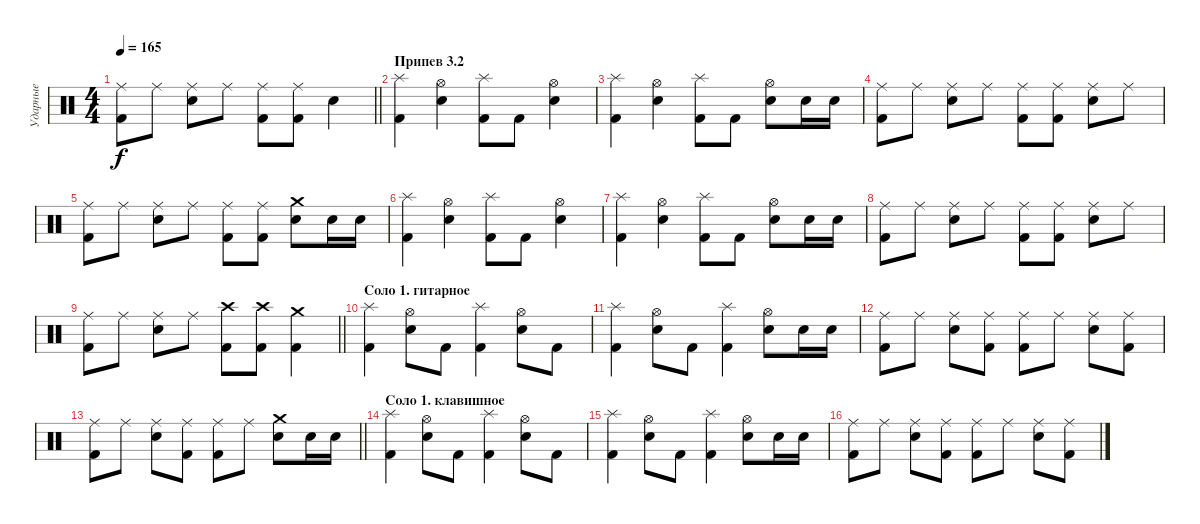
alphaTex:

\track ("Ударные" "Ударные") {instrument percussion}
\staff {score}
\articulation defaults
\ts (4 4)
\tempo 165
\clef neutral
\barLineRight lightlight
\ks c
("Ride (middle)" "Kick (hit) 2").8{dy f} "Ride (middle)".8 ("Ride (middle)" "Electric Snare (hit)").8 "Ride (middle)".8 ("Ride (middle)" "Kick (hit) 2").8 ("Ride (middle)" "Kick (hit) 2").8 "Electric Snare (hit)".4 |
\section ("" "Припев 3.2")
("Splash (hit)" "Kick (hit) 2").4 ("Hi-Hat (open)" "Electric Snare (hit)").4 ("Splash (hit)" "Kick (hit) 2").8 "Kick (hit) 2".8 ("Hi-Hat (open)" "Electric Snare (hit)").4 |
("Splash (hit)" "Kick (hit) 2").4 ("Hi-Hat (open)" "Electric Snare (hit)").4 ("Splash (hit)" "Kick (hit) 2").8 "Kick (hit) 2".8 ("Hi-Hat (open)" "Electric Snare (hit)").8 "Electric Snare (hit)".16 "Electric Snare (hit)".16 |
("Ride (middle)" "Kick (hit) 2").8 "Ride (middle)".8 ("Ride (middle)" "Electric Snare (hit)").8 "Ride (middle)".8 ("Ride (middle)" "Kick (hit) 2").8 ("Ride (middle)" "Kick (hit) 2").8 ("Ride (middle)" "Electric Snare (hit)").8 "Ride (middle)".8 |
("Ride (middle)" "Kick (hit) 2").8 "Ride (middle)".8 ("Ride (middle)" "Electric Snare (hit)").8 "Ride (middle)".8 ("Ride (middle)" "Kick (hit) 2").8 ("Ride (middle)" "Kick (hit) 2").8 ("Crash medium (hit)" "Electric Snare (hit)").8 "Electric Snare (hit)".16 "Electric Snare (hit)".16 |
("Splash (hit)" "Kick (hit) 2").4 ("Hi-Hat (open)" "Electric Snare (hit)").4 ("Splash (hit)" "Kick (hit) 2").8 "Kick (hit) 2".8 ("Hi-Hat (open)" "Electric Snare (hit)").4 |
("Splash (hit)" "Kick (hit) 2").4 ("Hi-Hat (open)" "Electric Snare (hit)").4 ("Splash (hit)" "Kick (hit) 2").8 "Kick (hit) 2".8 ("Hi-Hat (open)" "Electric Snare (hit)").8 "Electric Snare (hit)".16 "Electric Snare (hit)".16 |
("Ride (middle)" "Kick (hit) 2").8 "Ride (middle)".8 ("Ride (middle)" "Electric Snare (hit)").8 "Ride (middle)".8 ("Ride (middle)" "Kick (hit) 2").8 ("Ride (middle)" "Kick (hit) 2").8 ("Ride (middle)" "Electric Snare (hit)").8 "Ride (middle)".8 |
\barLineRight lightlight
("Ride (middle)" "Kick (hit) 2").8 "Ride (middle)".8 ("Ride (middle)" "Electric Snare (hit)").8 "Ride (middle)".8 ("Crash high (hit)" "Kick (hit) 2").8 ("Crash high (hit)" "Kick (hit) 2").8 ("Crash medium (hit)" "Kick (hit) 2").4 |
\section ("" "Соло 1. гитарное")
("Splash (hit)" "Kick (hit) 2").4 ("Hi-Hat (open)" "Electric Snare (hit)").8 "Kick (hit) 2".8 ("Splash (hit)" "Kick (hit) 2").4 ("Hi-Hat (open)" "Electric Snare (hit)").8 "Kick (hit) 2".8 |
("Splash (hit)" "Kick (hit) 2").4 ("Hi-Hat (open)" "Electric Snare (hit)").8 "Kick (hit) 2".8 ("Splash (hit)" "Kick (hit) 2").4 ("Hi-Hat (open)" "Electric Snare (hit)").8 "Electric Snare (hit)".16 "Electric Snare (hit)".16 |
("Ride (middle)" "Kick (hit) 2").8 "Ride (middle)".8 ("Ride (middle)" "Electric Snare (hit)").8 ("Ride (middle)" "Kick (hit) 2").8 ("Ride (middle)" "Kick (hit) 2").8 "Ride (middle)".8 ("Ride (middle)" "Electric Snare (hit)").8 ("Ride (middle)" "Kick (hit) 2").8 |
\barLineRight lightlight
("Ride (middle)" "Kick (hit) 2").8 "Ride (middle)".8 ("Ride (middle)" "Electric Snare (hit)").8 ("Ride (middle)" "Kick (hit) 2").8 ("Ride (middle)" "Kick (hit) 2").8 "Ride (middle)".8 ("Crash medium (hit)" "Electric Snare (hit)").8 "Electric Snare (hit)".16 "Electric Snare (hit)".16 |
\section ("" "Соло 1. клавишное")
("Splash (hit)" "Kick (hit) 2").4 ("Hi-Hat (open)" "Electric Snare (hit)").8 "Kick (hit) 2".8 ("Splash (hit)" "Kick (hit) 2").4 ("Hi-Hat (open)" "Electric Snare (hit)").8 "Kick (hit) 2".8 |
("Splash (hit)" "Kick (hit) 2").4 ("Hi-Hat (open)" "Electric Snare (hit)").8 "Kick (hit) 2".8 ("Splash (hit)" "Kick (hit) 2").4 ("Hi-Hat (open)" "Electric Snare (hit)").8 "Electric Snare (hit)".16 "Electric Snare (hit)".16 |
("Ride (middle)" "Kick (hit) 2").8 "Ride (middle)".8 ("Ride (middle)" "Electric Snare (hit)").8 ("Ride (middle)" "Kick (hit) 2").8 ("Ride (middle)" "Kick (hit) 2").8 "Ride (middle)".8 ("Ride (middle)" "Electric Snare (hit)").8 ("Ride (middle)" "Kick (hit) 2").8
